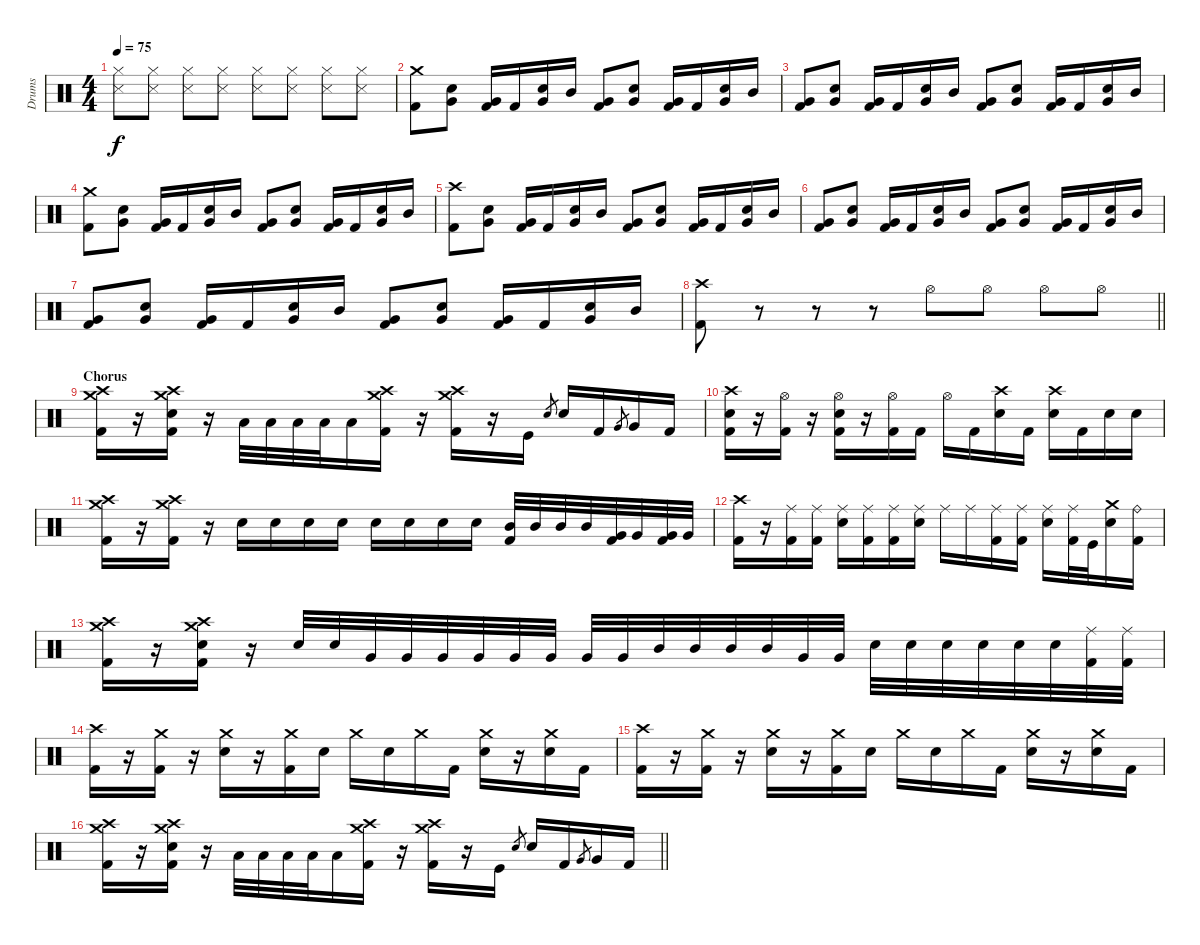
\track ("Drums" "Drums") {instrument percussion}
\staff {score}
\articulation defaults
\ts (4 4)
\tempo 75
\clef neutral
\ks c
("Snare (side stick) 3" "Hi-Hat (closed)").8{dy f} ("Snare (side stick) 3" "Hi-Hat (closed)").8 ("Snare (side stick) 3" "Hi-Hat (closed)").8 ("Snare (side stick) 3" "Hi-Hat (closed)").8 ("Snare (side stick) 3" "Hi-Hat (closed)").8 ("Snare (side stick) 3" "Hi-Hat (closed)").8 ("Snare (side stick) 3" "Hi-Hat (closed)").8 ("Snare (side stick) 3" "Hi-Hat (closed)").8 |
("Kick (hit) 2" "Crash medium (hit)").8 ("Snare (hit) 2" "Very Low Tom (hit)").8 ("Kick (hit) 2" "Very Low Tom (hit)").16 "Kick (hit) 2".16 ("Snare (hit) 2" "Very Low Tom (hit)").16 "Mid Tom (hit)".16 ("Kick (hit) 2" "Very Low Tom (hit)").8 ("Snare (hit) 2" "Very Low Tom (hit)").8 ("Kick (hit) 2" "Very Low Tom (hit)").16 "Kick (hit) 2".16 ("Snare (hit) 2" "Very Low Tom (hit)").16 "Mid Tom (hit)".16 |
("Kick (hit) 2" "Very Low Tom (hit)").8 ("Snare (hit) 2" "Very Low Tom (hit)").8 ("Kick (hit) 2" "Very Low Tom (hit)").16 "Kick (hit) 2".16 ("Snare (hit) 2" "Very Low Tom (hit)").16 "Mid Tom (hit)".16 ("Kick (hit) 2" "Very Low Tom (hit)").8 ("Snare (hit) 2" "Very Low Tom (hit)").8 ("Kick (hit) 2" "Very Low Tom (hit)").16 "Kick (hit) 2".16 ("Snare (hit) 2" "Very Low Tom (hit)").16 "Mid Tom (hit)".16 |
("Kick (hit) 2" "Crash medium (hit)").8 ("Snare (hit) 2" "Very Low Tom (hit)").8 ("Kick (hit) 2" "Very Low Tom (hit)").16 "Kick (hit) 2".16 ("Snare (hit) 2" "Very Low Tom (hit)").16 "Mid Tom (hit)".16 ("Kick (hit) 2" "Very Low Tom (hit)").8 ("Snare (hit) 2" "Very Low Tom (hit)").8 ("Kick (hit) 2" "Very Low Tom (hit)").16 "Kick (hit) 2".16 ("Snare (hit) 2" "Very Low Tom (hit)").16 "Mid Tom (hit)".16 |
("Kick (hit) 2" "Crash high (hit)").8 ("Snare (hit) 2" "Very Low Tom (hit)").8 ("Kick (hit) 2" "Very Low Tom (hit)").16 "Kick (hit) 2".16 ("Snare (hit) 2" "Very Low Tom (hit)").16 "Mid Tom (hit)".16 ("Kick (hit) 2" "Very Low Tom (hit)").8 ("Snare (hit) 2" "Very Low Tom (hit)").8 ("Kick (hit) 2" "Very Low Tom (hit)").16 "Kick (hit) 2".16 ("Snare (hit) 2" "Very Low Tom (hit)").16 "Mid Tom (hit)".16 |
("Kick (hit) 2" "Very Low Tom (hit)").8 ("Snare (hit) 2" "Very Low Tom (hit)").8 ("Kick (hit) 2" "Very Low Tom (hit)").16 "Kick (hit) 2".16 ("Snare (hit) 2" "Very Low Tom (hit)").16 "Mid Tom (hit)".16 ("Kick (hit) 2" "Very Low Tom (hit)").8 ("Snare (hit) 2" "Very Low Tom (hit)").8 ("Kick (hit) 2" "Very Low Tom (hit)").16 "Kick (hit) 2".16 ("Snare (hit) 2" "Very Low Tom (hit)").16 "Mid Tom (hit)".16 |
("Kick (hit) 2" "Very Low Tom (hit)").8 ("Snare (hit) 2" "Very Low Tom (hit)").8 ("Kick (hit) 2" "Very Low Tom (hit)").16 "Kick (hit) 2".16 ("Snare (hit) 2" "Very Low Tom (hit)").16 "Mid Tom (hit)".16 ("Kick (hit) 2" "Very Low Tom (hit)").8 ("Snare (hit) 2" "Very Low Tom (hit)").8 ("Kick (hit) 2" "Very Low Tom (hit)").16 "Kick (hit) 2".16 ("Snare (hit) 2" "Very Low Tom (hit)").16 "Mid Tom (hit)".16 |
\barLineRight lightlight
("Kick (hit) 2" "Crash high (hit)").8 r.8 r.8 r.8 "Hi-Hat (open)".8 "Hi-Hat (open)".8 "Hi-Hat (open)".8 "Hi-Hat (open)".8 |
\section ("" "Chorus")
("Kick (hit) 2" "Crash high (hit)" "Crash medium (hit)").16 r.16 ("Kick (hit) 2" "Crash high (hit)" "Crash medium (hit)" "Snare (hit) 2").16 r.16 "Low Tom (hit)".32 "Low Tom (hit)".32 "Low Tom (hit)".32 "Low Tom (hit)".32 "Low Tom (hit)".16 ("Kick (hit) 2" "Crash high (hit)" "Crash medium (hit)").16 r.16 ("Kick (hit) 2" "Crash high (hit)" "Crash medium (hit)").16 r.16 "Kick (hit)".16 "Snare (hit) 2".8{gr} "Snare (hit) 2".16 "Kick (hit) 2".16 "Very Low Tom (hit)".8{gr} "Very Low Tom (hit)".16 "Kick (hit) 2".16 |
("Snare (hit) 2" "Crash high (hit)" "Kick (hit) 2").16 r.16 ("Kick (hit) 2" "Hi-Hat (open)").16 r.16 ("Snare (hit) 2" "Kick (hit) 2" "Hi-Hat (open)").16 r.16 ("Kick (hit) 2" "Hi-Hat (open)").16 "Kick (hit) 2".16 "Hi-Hat (open)".16 "Kick (hit) 2".16 ("Snare (hit) 2" "Crash high (hit)").16 "Kick (hit) 2".16 ("Snare (hit) 2" "Crash high (hit)").16 "Kick (hit) 2".16 "Snare (hit) 2".16 "Snare (hit) 2".16 |
("Kick (hit) 2" "Crash high (hit)" "Crash medium (hit)").16 r.16 ("Kick (hit) 2" "Crash high (hit)" "Crash medium (hit)").16 r.16 "Snare (hit) 2".16 "Snare (hit) 2".16 "Snare (hit) 2".16 "Snare (hit) 2".16 "Snare (hit) 2".16 "Snare (hit) 2".16 "Snare (hit) 2".16 "Snare (hit) 2".16 ("Mid Tom (hit)" "Kick (hit) 2").32 "Mid Tom (hit)".32 "Mid Tom (hit)".32 "Mid Tom (hit)".32 ("Very Low Tom (hit)" "Kick (hit) 2").32 "Very Low Tom (hit)".32 ("Very Low Tom (hit)" "Kick (hit) 2").32 "Very Low Tom (hit)".32 |
("Kick (hit) 2" "Crash high (hit)").16 r.16 ("Ride (middle)" "Kick (hit) 2").16 ("Ride (middle)" "Kick (hit) 2").16 ("Ride (middle)" "Snare (hit) 2").16 ("Ride (middle)" "Kick (hit) 2").16 ("Ride (middle)" "Kick (hit) 2").16 ("Ride (middle)" "Snare (hit) 2").16 "Ride (middle)".16 "Ride (middle)".16 ("Ride (middle)" "Kick (hit) 2").16 ("Ride (middle)" "Kick (hit) 2").16 ("Ride (middle)" "Snare (hit) 2").16 ("Ride (middle)" "Kick (hit) 2").32 "Kick (hit)".32 ("Crash medium (hit)" "Snare (hit) 2").16 ("Kick (hit) 2" "Ride (bell)").16 |
("Kick (hit) 2" "Crash high (hit)" "Crash medium (hit)").16 r.16 ("Snare (hit) 2" "Kick (hit) 2" "Crash high (hit)" "Crash medium (hit)").16 r.16 "Snare (hit) 2".32 "Snare (hit) 2".32 "Very Low Tom (hit)".32 "Very Low Tom (hit)".32 "Very Low Tom (hit)".32 "Very Low Tom (hit)".32 "Very Low Tom (hit)".32 "Very Low Tom (hit)".32 "Very Low Tom (hit)".32 "Very Low Tom (hit)".32 "Mid Tom (hit)".32 "Mid Tom (hit)".32 "Mid Tom (hit)".32 "Mid Tom (hit)".32 "Very Low Tom (hit)".32 "Very Low Tom (hit)".32 "Snare (hit) 2".32 "Snare (hit) 2".32 "Snare (hit) 2".32 "Snare (hit) 2".32 "Snare (hit) 2".32 "Snare (hit) 2".32 ("Kick (hit) 2" "Ride (middle)").32 ("Kick (hit) 2" "Ride (middle)").32 |
("Kick (hit) 2" "Crash high (hit)").16 r.16 ("Kick (hit) 2" "Crash medium (hit)").16 r.16 ("Snare (hit) 2" "Crash medium (hit)").16 r.16 ("Kick (hit) 2" "Crash medium (hit)").16 "Snare (hit) 2".16 "Crash medium (hit)".16 "Snare (hit) 2".16 "Crash medium (hit)".16 "Kick (hit) 2".16 ("Snare (hit) 2" "Crash medium (hit)").16 r.16 ("Snare (hit) 2" "Crash medium (hit)").16 "Kick (hit) 2".16 |
("Kick (hit) 2" "Crash high (hit)").16 r.16 ("Kick (hit) 2" "Crash medium (hit)").16 r.16 ("Snare (hit) 2" "Crash medium (hit)").16 r.16 ("Kick (hit) 2" "Crash medium (hit)").16 "Snare (hit) 2".16 "Crash medium (hit)".16 "Snare (hit) 2".16 "Crash medium (hit)".16 "Kick (hit) 2".16 ("Snare (hit) 2" "Crash medium (hit)").16 r.16 ("Snare (hit) 2" "Crash medium (hit)").16 "Kick (hit) 2".16 |
\barLineRight lightlight
("Kick (hit) 2" "Crash high (hit)" "Crash medium (hit)").16 r.16 ("Kick (hit) 2" "Crash high (hit)" "Crash medium (hit)" "Snare (hit) 2").16 r.16 "Low Tom (hit)".32 "Low Tom (hit)".32 "Low Tom (hit)".32 "Low Tom (hit)".32 "Low Tom (hit)".16 ("Kick (hit) 2" "Crash high (hit)" "Crash medium (hit)").16 r.16 ("Kick (hit) 2" "Crash high (hit)" "Crash medium (hit)").16 r.16 "Kick (hit)".16 "Snare (hit) 2".8{gr} "Snare (hit) 2".16 "Kick (hit) 2".16 "Very Low Tom (hit)".8{gr} "Very Low Tom (hit)".16 "Kick (hit) 2".16
